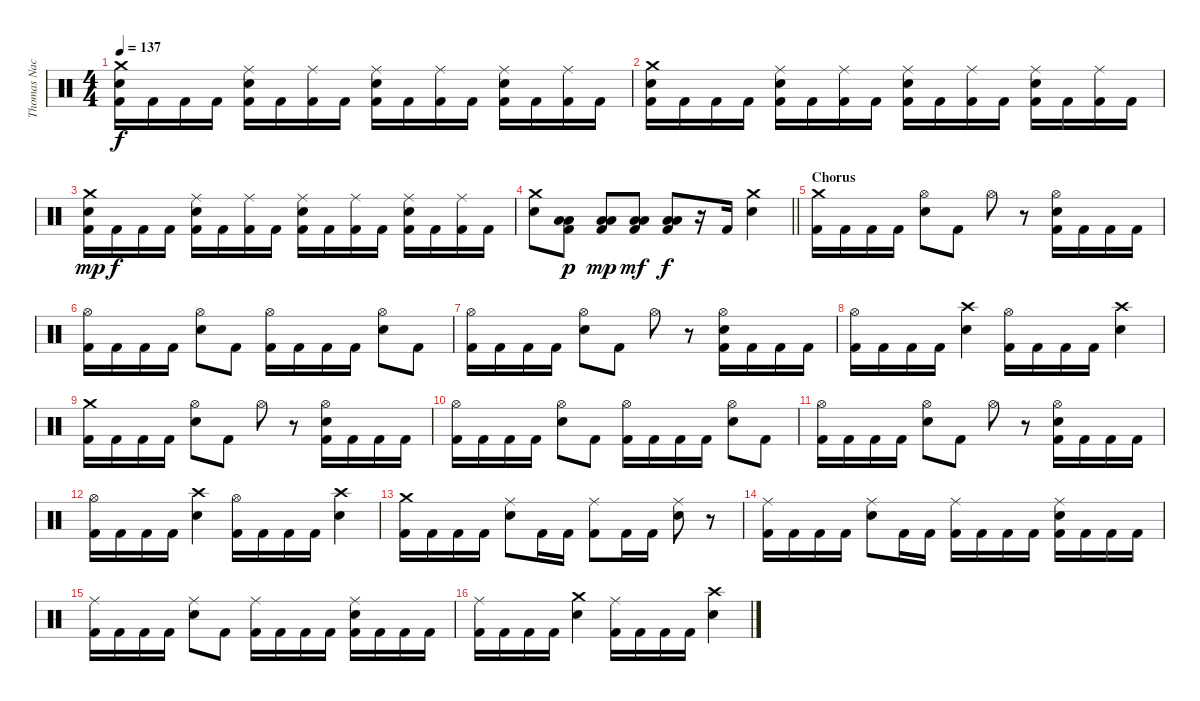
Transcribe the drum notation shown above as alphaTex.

\track ("Thomas Nack" "Thomas Nac") {instrument percussion}
\staff {score}
\articulation defaults
\ts (4 4)
\tempo 137
\clef neutral
\ks c
("Crash medium (hit)" "Electric Snare (hit)" "Kick (hit) 2").16{dy f} "Kick (hit) 2".16 "Kick (hit) 2".16 "Kick (hit) 2".16 ("Ride (middle)" "Electric Snare (hit)" "Kick (hit) 2").16 "Kick (hit) 2".16 ("Ride (middle)" "Kick (hit) 2").16 "Kick (hit) 2".16 ("Ride (middle)" "Electric Snare (hit)" "Kick (hit) 2").16 "Kick (hit) 2".16 ("Ride (middle)" "Kick (hit) 2").16 "Kick (hit) 2".16 ("Ride (middle)" "Electric Snare (hit)" "Kick (hit) 2").16 "Kick (hit) 2".16 ("Ride (middle)" "Kick (hit) 2").16 "Kick (hit) 2".16 |
("Crash medium (hit)" "Electric Snare (hit)" "Kick (hit) 2").16 "Kick (hit) 2".16 "Kick (hit) 2".16 "Kick (hit) 2".16 ("Ride (middle)" "Electric Snare (hit)" "Kick (hit) 2").16 "Kick (hit) 2".16 ("Ride (middle)" "Kick (hit) 2").16 "Kick (hit) 2".16 ("Ride (middle)" "Electric Snare (hit)" "Kick (hit) 2").16 "Kick (hit) 2".16 ("Ride (middle)" "Kick (hit) 2").16 "Kick (hit) 2".16 ("Ride (middle)" "Electric Snare (hit)" "Kick (hit) 2").16 "Kick (hit) 2".16 ("Ride (middle)" "Kick (hit) 2").16 "Kick (hit) 2".16 |
("Crash medium (hit)" "Electric Snare (hit)" "Kick (hit) 2").16{dy mp} "Kick (hit) 2".16{dy f} "Kick (hit) 2".16 "Kick (hit) 2".16 ("Ride (middle)" "Electric Snare (hit)" "Kick (hit) 2").16 "Kick (hit) 2".16 ("Ride (middle)" "Kick (hit) 2").16 "Kick (hit) 2".16 ("Ride (middle)" "Electric Snare (hit)" "Kick (hit) 2").16 "Kick (hit) 2".16 ("Ride (middle)" "Kick (hit) 2").16 "Kick (hit) 2".16 ("Ride (middle)" "Electric Snare (hit)" "Kick (hit) 2").16 "Kick (hit) 2".16 ("Ride (middle)" "Kick (hit) 2").16 "Kick (hit) 2".16 |
\barLineRight lightlight
("Crash medium (hit)" "Electric Snare (hit)").8 ("Low Floor Tom (hit)" "Low Floor Tom (hit)" "Kick (hit) 2").8{dy p} ("Low Floor Tom (hit)" "Low Floor Tom (hit)" "Kick (hit) 2").8{dy mp} ("Low Floor Tom (hit)" "Low Floor Tom (hit)" "Kick (hit) 2").8{dy mf} ("Low Floor Tom (hit)" "Low Floor Tom (hit)" "Kick (hit) 2").8{dy f} r.16 "Kick (hit) 2".16 ("Crash medium (hit)" "Electric Snare (hit)").4 |
\section ("" "Chorus")
("Crash medium (hit)" "Kick (hit) 2").16 "Kick (hit) 2".16 "Kick (hit) 2".16 "Kick (hit) 2".16 ("Hi-Hat (open)" "Electric Snare (hit)").8 "Kick (hit) 2".8 "Hi-Hat (open)".8 r.8 ("Hi-Hat (open)" "Electric Snare (hit)" "Kick (hit) 2").16 "Kick (hit) 2".16 "Kick (hit) 2".16 "Kick (hit) 2".16 |
("Hi-Hat (open)" "Kick (hit) 2").16 "Kick (hit) 2".16 "Kick (hit) 2".16 "Kick (hit) 2".16 ("Hi-Hat (open)" "Electric Snare (hit)").8 "Kick (hit) 2".8 ("Hi-Hat (open)" "Kick (hit) 2").16 "Kick (hit) 2".16 "Kick (hit) 2".16 "Kick (hit) 2".16 ("Hi-Hat (open)" "Electric Snare (hit)").8 "Kick (hit) 2".8 |
("Hi-Hat (open)" "Kick (hit) 2").16 "Kick (hit) 2".16 "Kick (hit) 2".16 "Kick (hit) 2".16 ("Hi-Hat (open)" "Electric Snare (hit)").8 "Kick (hit) 2".8 "Hi-Hat (open)".8 r.8 ("Hi-Hat (open)" "Electric Snare (hit)" "Kick (hit) 2").16 "Kick (hit) 2".16 "Kick (hit) 2".16 "Kick (hit) 2".16 |
("Hi-Hat (open)" "Kick (hit) 2").16 "Kick (hit) 2".16 "Kick (hit) 2".16 "Kick (hit) 2".16 ("Crash high (hit)" "Electric Snare (hit)").4 ("Hi-Hat (open)" "Kick (hit) 2").16 "Kick (hit) 2".16 "Kick (hit) 2".16 "Kick (hit) 2".16 ("Crash high (hit)" "Electric Snare (hit)").4 |
("Crash medium (hit)" "Kick (hit) 2").16 "Kick (hit) 2".16 "Kick (hit) 2".16 "Kick (hit) 2".16 ("Hi-Hat (open)" "Electric Snare (hit)").8 "Kick (hit) 2".8 "Hi-Hat (open)".8 r.8 ("Hi-Hat (open)" "Electric Snare (hit)" "Kick (hit) 2").16 "Kick (hit) 2".16 "Kick (hit) 2".16 "Kick (hit) 2".16 |
("Hi-Hat (open)" "Kick (hit) 2").16 "Kick (hit) 2".16 "Kick (hit) 2".16 "Kick (hit) 2".16 ("Hi-Hat (open)" "Electric Snare (hit)").8 "Kick (hit) 2".8 ("Hi-Hat (open)" "Kick (hit) 2").16 "Kick (hit) 2".16 "Kick (hit) 2".16 "Kick (hit) 2".16 ("Hi-Hat (open)" "Electric Snare (hit)").8 "Kick (hit) 2".8 |
("Hi-Hat (open)" "Kick (hit) 2").16 "Kick (hit) 2".16 "Kick (hit) 2".16 "Kick (hit) 2".16 ("Hi-Hat (open)" "Electric Snare (hit)").8 "Kick (hit) 2".8 "Hi-Hat (open)".8 r.8 ("Hi-Hat (open)" "Electric Snare (hit)" "Kick (hit) 2").16 "Kick (hit) 2".16 "Kick (hit) 2".16 "Kick (hit) 2".16 |
("Hi-Hat (open)" "Kick (hit) 2").16 "Kick (hit) 2".16 "Kick (hit) 2".16 "Kick (hit) 2".16 ("Crash high (hit)" "Electric Snare (hit)").4 ("Hi-Hat (open)" "Kick (hit) 2").16 "Kick (hit) 2".16 "Kick (hit) 2".16 "Kick (hit) 2".16 ("Crash high (hit)" "Electric Snare (hit)").4 |
("Crash medium (hit)" "Kick (hit) 2").16 "Kick (hit) 2".16 "Kick (hit) 2".16 "Kick (hit) 2".16 ("Ride (middle)" "Electric Snare (hit)").8 "Kick (hit) 2".16 "Kick (hit) 2".16 ("Ride (middle)" "Kick (hit) 2").8 "Kick (hit) 2".16 "Kick (hit) 2".16 ("Ride (middle)" "Electric Snare (hit)").8 r.8 |
("Ride (middle)" "Kick (hit) 2").16 "Kick (hit) 2".16 "Kick (hit) 2".16 "Kick (hit) 2".16 ("Ride (middle)" "Electric Snare (hit)").8 "Kick (hit) 2".16 "Kick (hit) 2".16 ("Ride (middle)" "Kick (hit) 2").16 "Kick (hit) 2".16 "Kick (hit) 2".16 "Kick (hit) 2".16 ("Ride (middle)" "Electric Snare (hit)" "Kick (hit) 2").16 "Kick (hit) 2".16 "Kick (hit) 2".16 "Kick (hit) 2".16 |
("Ride (middle)" "Kick (hit) 2").16 "Kick (hit) 2".16 "Kick (hit) 2".16 "Kick (hit) 2".16 ("Ride (middle)" "Electric Snare (hit)").8 "Kick (hit) 2".8 ("Ride (middle)" "Kick (hit) 2").16 "Kick (hit) 2".16 "Kick (hit) 2".16 "Kick (hit) 2".16 ("Ride (middle)" "Electric Snare (hit)" "Kick (hit) 2").16 "Kick (hit) 2".16 "Kick (hit) 2".16 "Kick (hit) 2".16 |
("Ride (middle)" "Kick (hit) 2").16 "Kick (hit) 2".16 "Kick (hit) 2".16 "Kick (hit) 2".16 ("Crash medium (hit)" "Electric Snare (hit)").4 ("Ride (middle)" "Kick (hit) 2").16 "Kick (hit) 2".16 "Kick (hit) 2".16 "Kick (hit) 2".16 ("Crash high (hit)" "Electric Snare (hit)").4
